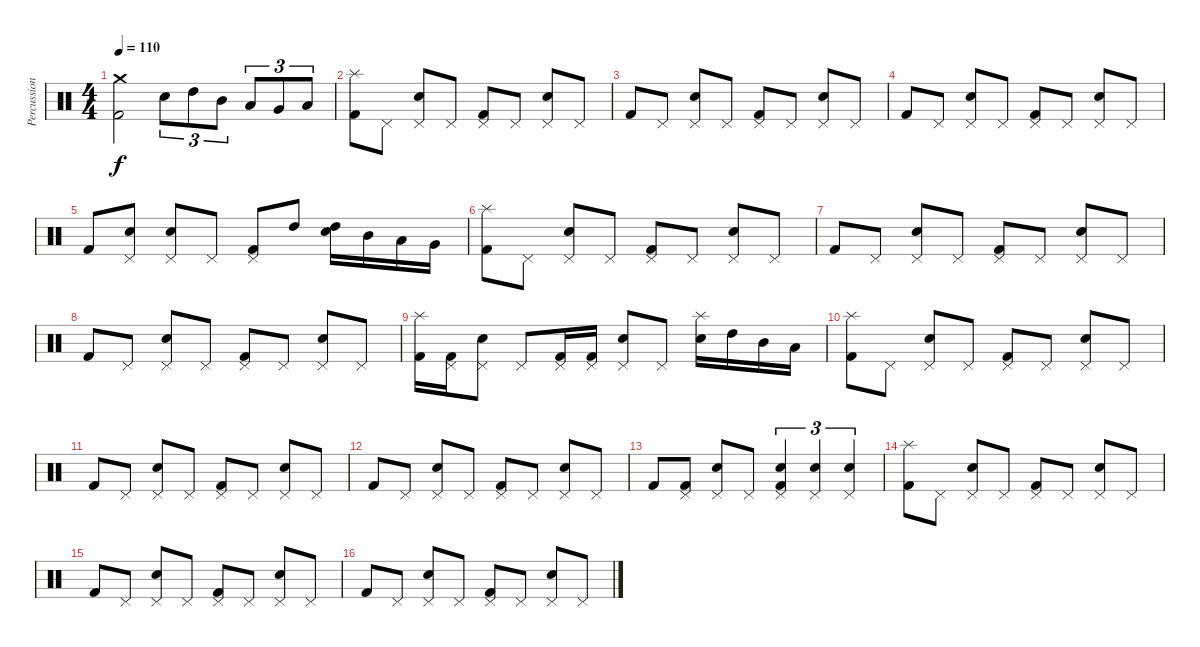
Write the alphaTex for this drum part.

\track ("Percussion" "Percussion") {instrument percussion}
\staff {score}
\articulation defaults
\ts (4 4)
\tempo 110
\clef neutral
\ks c
("Crash medium (hit)" "Kick (hit) 2").2{dy f} "Snare (hit) 2".8{tu (3 2)} "High Tom (hit)".8{tu (3 2)} "Mid Tom (hit)".8{tu (3 2)} "Low Tom (hit)".8{tu (3 2)} "Very Low Tom (hit)".8{tu (3 2)} "Low Floor Tom (hit)".8{tu (3 2)} |
("Splash (hit)" "Kick (hit) 2").8 "Pedal Hi-Hat (hit)".8 ("Pedal Hi-Hat (hit)" "Snare (hit) 2").8 "Pedal Hi-Hat (hit)".8 ("Pedal Hi-Hat (hit)" "Kick (hit) 2").8 "Pedal Hi-Hat (hit)".8 ("Pedal Hi-Hat (hit)" "Snare (hit) 2").8 "Pedal Hi-Hat (hit)".8 |
"Kick (hit) 2".8 "Pedal Hi-Hat (hit)".8 ("Pedal Hi-Hat (hit)" "Snare (hit) 2").8 "Pedal Hi-Hat (hit)".8 ("Pedal Hi-Hat (hit)" "Kick (hit) 2").8 "Pedal Hi-Hat (hit)".8 ("Pedal Hi-Hat (hit)" "Snare (hit) 2").8 "Pedal Hi-Hat (hit)".8 |
"Kick (hit) 2".8 "Pedal Hi-Hat (hit)".8 ("Pedal Hi-Hat (hit)" "Snare (hit) 2").8 "Pedal Hi-Hat (hit)".8 ("Pedal Hi-Hat (hit)" "Kick (hit) 2").8 "Pedal Hi-Hat (hit)".8 ("Pedal Hi-Hat (hit)" "Snare (hit) 2").8 "Pedal Hi-Hat (hit)".8 |
"Kick (hit) 2".8 ("Pedal Hi-Hat (hit)" "Snare (hit) 2").8 ("Pedal Hi-Hat (hit)" "Snare (hit) 2").8 "Pedal Hi-Hat (hit)".8 ("Pedal Hi-Hat (hit)" "Kick (hit) 2").8 "High Tom (hit)".8 ("High Tom (hit)" "Snare (hit) 2").16 "Mid Tom (hit)".16 "Low Tom (hit)".16 "Very Low Tom (hit)".16 |
("Splash (hit)" "Kick (hit) 2").8 "Pedal Hi-Hat (hit)".8 ("Pedal Hi-Hat (hit)" "Snare (hit) 2").8 "Pedal Hi-Hat (hit)".8 ("Pedal Hi-Hat (hit)" "Kick (hit) 2").8 "Pedal Hi-Hat (hit)".8 ("Pedal Hi-Hat (hit)" "Snare (hit) 2").8 "Pedal Hi-Hat (hit)".8 |
"Kick (hit) 2".8 "Pedal Hi-Hat (hit)".8 ("Pedal Hi-Hat (hit)" "Snare (hit) 2").8 "Pedal Hi-Hat (hit)".8 ("Pedal Hi-Hat (hit)" "Kick (hit) 2").8 "Pedal Hi-Hat (hit)".8 ("Pedal Hi-Hat (hit)" "Snare (hit) 2").8 "Pedal Hi-Hat (hit)".8 |
"Kick (hit) 2".8 "Pedal Hi-Hat (hit)".8 ("Pedal Hi-Hat (hit)" "Snare (hit) 2").8 "Pedal Hi-Hat (hit)".8 ("Pedal Hi-Hat (hit)" "Kick (hit) 2").8 "Pedal Hi-Hat (hit)".8 ("Pedal Hi-Hat (hit)" "Snare (hit) 2").8 "Pedal Hi-Hat (hit)".8 |
("Splash (hit)" "Kick (hit) 2").16 ("Pedal Hi-Hat (hit)" "Kick (hit) 2").16 ("Pedal Hi-Hat (hit)" "Snare (hit) 2").8 "Pedal Hi-Hat (hit)".8 ("Pedal Hi-Hat (hit)" "Kick (hit) 2").16 ("Pedal Hi-Hat (hit)" "Kick (hit) 2").16 ("Pedal Hi-Hat (hit)" "Snare (hit) 2").8 "Pedal Hi-Hat (hit)".8 ("Splash (hit)" "Snare (hit) 2").16 "High Tom (hit)".16 "Mid Tom (hit)".16 "Low Tom (hit)".16 |
("Splash (hit)" "Kick (hit) 2").8 "Pedal Hi-Hat (hit)".8 ("Pedal Hi-Hat (hit)" "Snare (hit) 2").8 "Pedal Hi-Hat (hit)".8 ("Pedal Hi-Hat (hit)" "Kick (hit) 2").8 "Pedal Hi-Hat (hit)".8 ("Pedal Hi-Hat (hit)" "Snare (hit) 2").8 "Pedal Hi-Hat (hit)".8 |
"Kick (hit) 2".8 "Pedal Hi-Hat (hit)".8 ("Pedal Hi-Hat (hit)" "Snare (hit) 2").8 "Pedal Hi-Hat (hit)".8 ("Pedal Hi-Hat (hit)" "Kick (hit) 2").8 "Pedal Hi-Hat (hit)".8 ("Pedal Hi-Hat (hit)" "Snare (hit) 2").8 "Pedal Hi-Hat (hit)".8 |
"Kick (hit) 2".8 "Pedal Hi-Hat (hit)".8 ("Pedal Hi-Hat (hit)" "Snare (hit) 2").8 "Pedal Hi-Hat (hit)".8 ("Pedal Hi-Hat (hit)" "Kick (hit) 2").8 "Pedal Hi-Hat (hit)".8 ("Pedal Hi-Hat (hit)" "Snare (hit) 2").8 "Pedal Hi-Hat (hit)".8 |
"Kick (hit) 2".8 ("Pedal Hi-Hat (hit)" "Kick (hit) 2").8 ("Pedal Hi-Hat (hit)" "Snare (hit) 2").8 "Pedal Hi-Hat (hit)".8 ("Pedal Hi-Hat (hit)" "Snare (hit) 2" "Kick (hit) 2").4{tu (3 2)} ("Pedal Hi-Hat (hit)" "Snare (hit) 2").4{tu (3 2)} ("Pedal Hi-Hat (hit)" "Snare (hit) 2").4{tu (3 2)} |
("Splash (hit)" "Kick (hit) 2").8 "Pedal Hi-Hat (hit)".8 ("Pedal Hi-Hat (hit)" "Snare (hit) 2").8 "Pedal Hi-Hat (hit)".8 ("Pedal Hi-Hat (hit)" "Kick (hit) 2").8 "Pedal Hi-Hat (hit)".8 ("Pedal Hi-Hat (hit)" "Snare (hit) 2").8 "Pedal Hi-Hat (hit)".8 |
"Kick (hit) 2".8 "Pedal Hi-Hat (hit)".8 ("Pedal Hi-Hat (hit)" "Snare (hit) 2").8 "Pedal Hi-Hat (hit)".8 ("Pedal Hi-Hat (hit)" "Kick (hit) 2").8 "Pedal Hi-Hat (hit)".8 ("Pedal Hi-Hat (hit)" "Snare (hit) 2").8 "Pedal Hi-Hat (hit)".8 |
"Kick (hit) 2".8 "Pedal Hi-Hat (hit)".8 ("Pedal Hi-Hat (hit)" "Snare (hit) 2").8 "Pedal Hi-Hat (hit)".8 ("Pedal Hi-Hat (hit)" "Kick (hit) 2").8 "Pedal Hi-Hat (hit)".8 ("Pedal Hi-Hat (hit)" "Snare (hit) 2").8 "Pedal Hi-Hat (hit)".8
